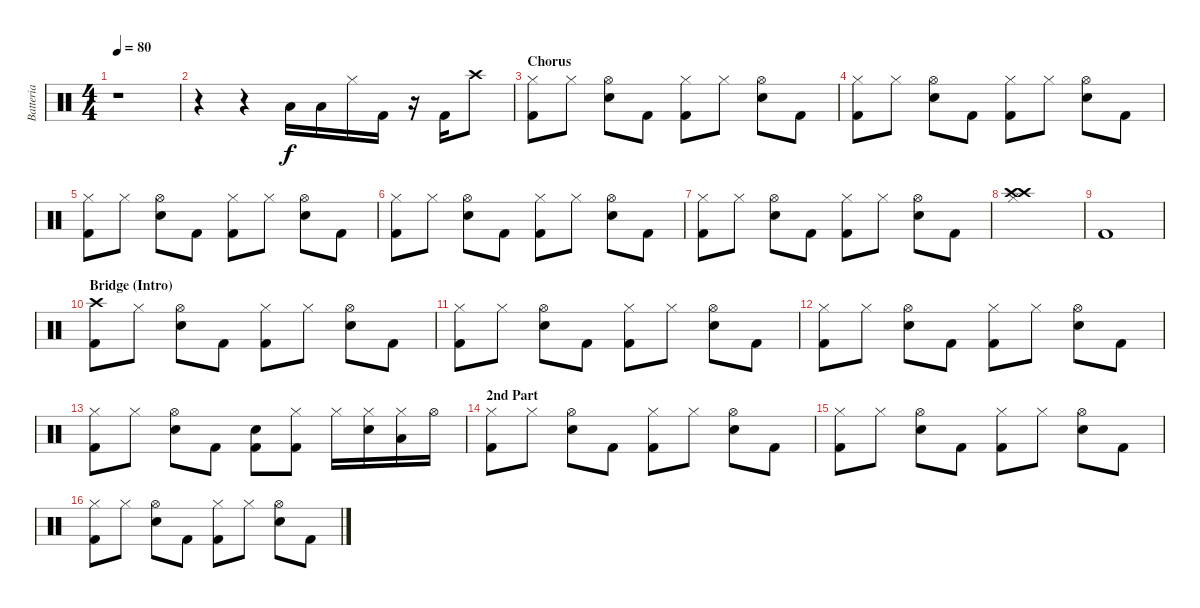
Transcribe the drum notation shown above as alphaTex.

\track ("Batteria" "Batteria") {instrument percussion}
\staff {score}
\articulation defaults
\ts (4 4)
\tempo 80
\clef neutral
\ks c
r.1{dy f} |
r.4 r.4 "Low Tom (hit)".16 "Low Tom (hit)".16 "Hi-Hat (closed)".16 "Kick (hit) 2".16 r.16 "Kick (hit) 2".16 "Crash high (hit)".8 |
\section ("" "Chorus")
("Kick (hit) 2" "Hi-Hat (closed)").8 "Hi-Hat (closed)".8 ("Electric Snare (hit)" "Hi-Hat (open)").8 "Kick (hit) 2".8 ("Kick (hit) 2" "Hi-Hat (closed)").8 "Hi-Hat (closed)".8 ("Electric Snare (hit)" "Hi-Hat (open)").8 "Kick (hit) 2".8 |
("Kick (hit) 2" "Hi-Hat (closed)").8 "Hi-Hat (closed)".8 ("Electric Snare (hit)" "Hi-Hat (open)").8 "Kick (hit) 2".8 ("Kick (hit) 2" "Hi-Hat (closed)").8 "Hi-Hat (closed)".8 ("Electric Snare (hit)" "Hi-Hat (open)").8 "Kick (hit) 2".8 |
("Kick (hit) 2" "Hi-Hat (closed)").8 "Hi-Hat (closed)".8 ("Electric Snare (hit)" "Hi-Hat (open)").8 "Kick (hit) 2".8 ("Kick (hit) 2" "Hi-Hat (closed)").8 "Hi-Hat (closed)".8 ("Electric Snare (hit)" "Hi-Hat (open)").8 "Kick (hit) 2".8 |
("Kick (hit) 2" "Hi-Hat (closed)").8 "Hi-Hat (closed)".8 ("Electric Snare (hit)" "Hi-Hat (open)").8 "Kick (hit) 2".8 ("Kick (hit) 2" "Hi-Hat (closed)").8 "Hi-Hat (closed)".8 ("Electric Snare (hit)" "Hi-Hat (open)").8 "Kick (hit) 2".8 |
("Kick (hit) 2" "Hi-Hat (closed)").8 "Hi-Hat (closed)".8 ("Electric Snare (hit)" "Hi-Hat (open)").8 "Kick (hit) 2".8 ("Kick (hit) 2" "Hi-Hat (closed)").8 "Hi-Hat (closed)".8 ("Electric Snare (hit)" "Hi-Hat (open)").8 "Kick (hit) 2".8 |
("Crash high (hit)" "Hi-Hat (closed)" "Crash high (hit)").1 |
"Kick (hit) 2".1 |
\section ("" "Bridge (Intro)")
("Kick (hit) 2" "Crash high (hit)").8 "Hi-Hat (closed)".8 ("Electric Snare (hit)" "Hi-Hat (open)").8 "Kick (hit) 2".8 ("Kick (hit) 2" "Hi-Hat (closed)").8 "Hi-Hat (closed)".8 ("Electric Snare (hit)" "Hi-Hat (open)").8 "Kick (hit) 2".8 |
("Kick (hit) 2" "Hi-Hat (closed)").8 "Hi-Hat (closed)".8 ("Electric Snare (hit)" "Hi-Hat (open)").8 "Kick (hit) 2".8 ("Kick (hit) 2" "Hi-Hat (closed)").8 "Hi-Hat (closed)".8 ("Electric Snare (hit)" "Hi-Hat (open)").8 "Kick (hit) 2".8 |
("Kick (hit) 2" "Hi-Hat (closed)").8 "Hi-Hat (closed)".8 ("Electric Snare (hit)" "Hi-Hat (open)").8 "Kick (hit) 2".8 ("Kick (hit) 2" "Hi-Hat (closed)").8 "Hi-Hat (closed)".8 ("Electric Snare (hit)" "Hi-Hat (open)").8 "Kick (hit) 2".8 |
("Kick (hit) 2" "Hi-Hat (closed)").8 "Hi-Hat (closed)".8 ("Electric Snare (hit)" "Hi-Hat (open)").8 "Kick (hit) 2".8 ("Kick (hit) 2" "Electric Snare (hit)").8 ("Kick (hit) 2" "Hi-Hat (closed)").8 "Hi-Hat (closed)".16 ("Electric Snare (hit)" "Hi-Hat (closed)").16 ("Low Tom (hit)" "Hi-Hat (closed)").16 "Hi-Hat (open)".16 |
\section ("" "2nd Part")
("Kick (hit) 2" "Hi-Hat (closed)").8 "Hi-Hat (closed)".8 ("Electric Snare (hit)" "Hi-Hat (open)").8 "Kick (hit) 2".8 ("Kick (hit) 2" "Hi-Hat (closed)").8 "Hi-Hat (closed)".8 ("Electric Snare (hit)" "Hi-Hat (open)").8 "Kick (hit) 2".8 |
("Kick (hit) 2" "Hi-Hat (closed)").8 "Hi-Hat (closed)".8 ("Electric Snare (hit)" "Hi-Hat (open)").8 "Kick (hit) 2".8 ("Kick (hit) 2" "Hi-Hat (closed)").8 "Hi-Hat (closed)".8 ("Electric Snare (hit)" "Hi-Hat (open)").8 "Kick (hit) 2".8 |
("Kick (hit) 2" "Hi-Hat (closed)").8 "Hi-Hat (closed)".8 ("Electric Snare (hit)" "Hi-Hat (open)").8 "Kick (hit) 2".8 ("Kick (hit) 2" "Hi-Hat (closed)").8 "Hi-Hat (closed)".8 ("Electric Snare (hit)" "Hi-Hat (open)").8 "Kick (hit) 2".8
